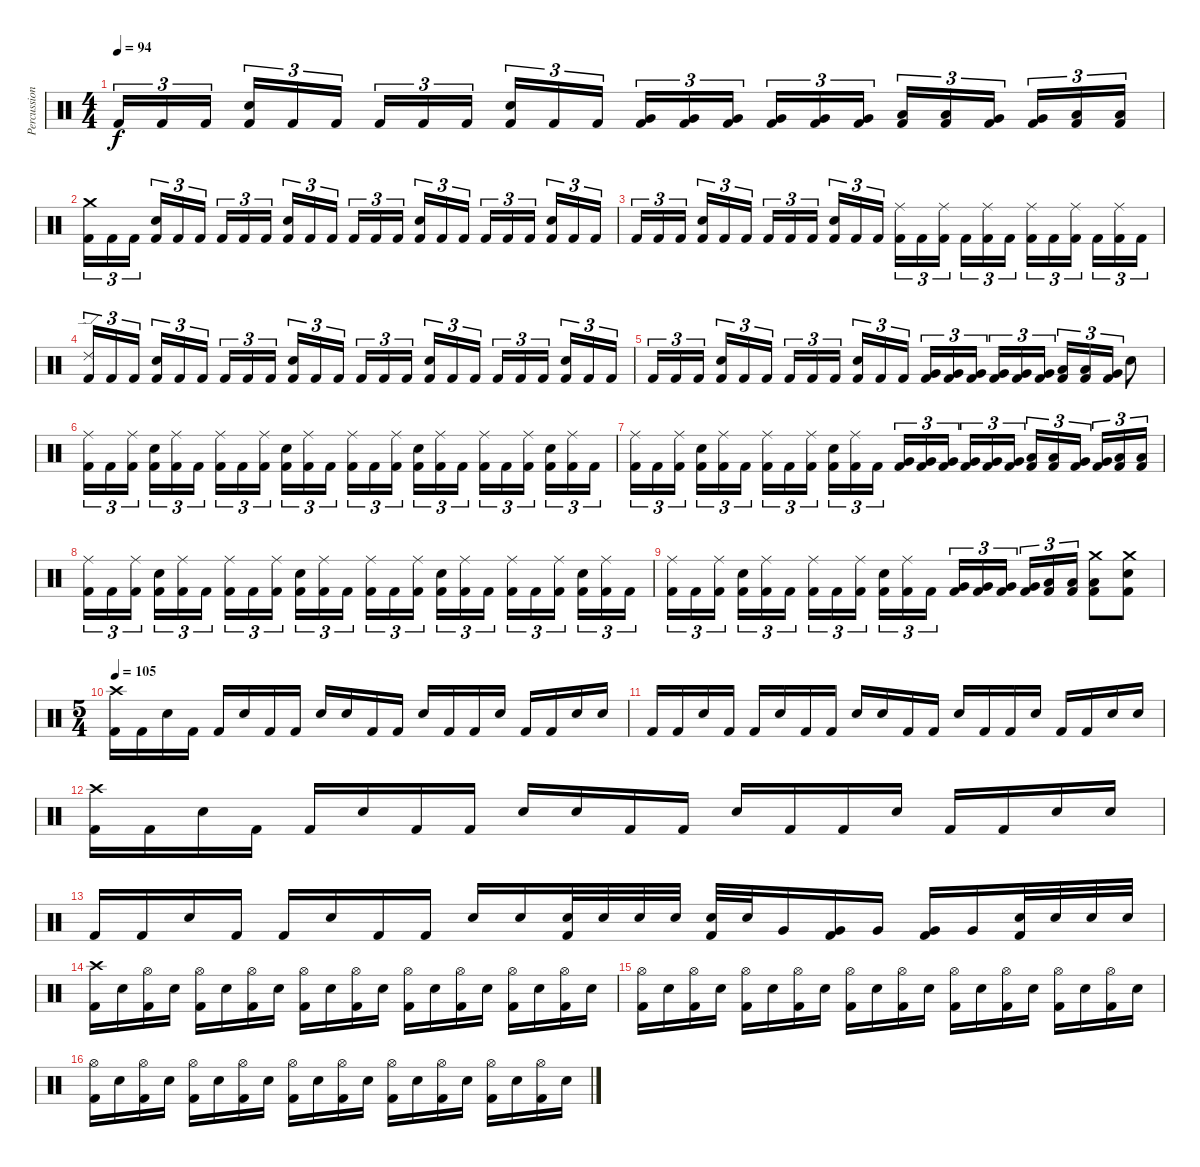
\track ("Percussioni" "Percussion") {instrument percussion}
\staff {score}
\articulation defaults
\ts (4 4)
\tempo 94
\clef neutral
\ks c "Kick (hit) 2".16{tu (3 2) dy f} "Kick (hit) 2".16{tu (3 2)} "Kick (hit) 2".16{tu (3 2)}
("Snare (hit) 2" "Kick (hit) 2").16{tu (3 2)} "Kick (hit) 2".16{tu (3 2)} "Kick (hit) 2".16{tu (3 2)} "Kick (hit) 2".16{tu (3 2)} "Kick (hit) 2".16{tu (3 2)} "Kick (hit) 2".16{tu (3 2)} ("Snare (hit) 2" "Kick (hit) 2").16{tu (3 2)} "Kick (hit) 2".16{tu (3 2)} "Kick (hit) 2".16{tu (3 2)} ("Very Low Tom (hit)" "Kick (hit) 2").16{tu (3 2)} ("Very Low Tom (hit)" "Kick (hit) 2").16{tu (3 2)} ("Very Low Tom (hit)" "Kick (hit) 2").16{tu (3 2)} ("Very Low Tom (hit)" "Kick (hit) 2").16{tu (3 2)} ("Very Low Tom (hit)" "Kick (hit) 2").16{tu (3 2)} ("Very Low Tom (hit)" "Kick (hit) 2").16{tu (3 2)} ("Low Tom (hit)" "Kick (hit) 2").16{tu (3 2)} ("Low Tom (hit)" "Kick (hit) 2").16{tu (3 2)} ("Very Low Tom (hit)" "Kick (hit) 2").16{tu (3 2)} ("Very Low Tom (hit)" "Kick (hit) 2").16{tu (3 2)} ("Low Floor Tom (hit)" "Kick (hit) 2").16{tu (3 2)} ("Low Floor Tom (hit)" "Kick (hit) 2").16{tu (3 2)} |
("Crash medium (hit)" "Kick (hit) 2").16{tu (3 2)} "Kick (hit) 2".16{tu (3 2)} "Kick (hit) 2".16{tu (3 2)} ("Snare (hit) 2" "Kick (hit) 2").16{tu (3 2)} "Kick (hit) 2".16{tu (3 2)} "Kick (hit) 2".16{tu (3 2)} "Kick (hit) 2".16{tu (3 2)} "Kick (hit) 2".16{tu (3 2)} "Kick (hit) 2".16{tu (3 2)} ("Snare (hit) 2" "Kick (hit) 2").16{tu (3 2)} "Kick (hit) 2".16{tu (3 2)} "Kick (hit) 2".16{tu (3 2)} "Kick (hit) 2".16{tu (3 2)} "Kick (hit) 2".16{tu (3 2)} "Kick (hit) 2".16{tu (3 2)} ("Snare (hit) 2" "Kick (hit) 2").16{tu (3 2)} "Kick (hit) 2".16{tu (3 2)} "Kick (hit) 2".16{tu (3 2)} "Kick (hit) 2".16{tu (3 2)} "Kick (hit) 2".16{tu (3 2)} "Kick (hit) 2".16{tu (3 2)} ("Snare (hit) 2" "Kick (hit) 2").16{tu (3 2)} "Kick (hit) 2".16{tu (3 2)} "Kick (hit) 2".16{tu (3 2)} |
"Kick (hit) 2".16{tu (3 2)} "Kick (hit) 2".16{tu (3 2)} "Kick (hit) 2".16{tu (3 2)} ("Snare (hit) 2" "Kick (hit) 2").16{tu (3 2)} "Kick (hit) 2".16{tu (3 2)} "Kick (hit) 2".16{tu (3 2)} "Kick (hit) 2".16{tu (3 2)} "Kick (hit) 2".16{tu (3 2)} "Kick (hit) 2".16{tu (3 2)} ("Snare (hit) 2" "Kick (hit) 2").16{tu (3 2)} "Kick (hit) 2".16{tu (3 2)} "Kick (hit) 2".16{tu (3 2)} ("Ride (middle)" "Kick (hit) 2").16{tu (3 2)} "Kick (hit) 2".16{tu (3 2)} ("Ride (middle)" "Kick (hit) 2").16{tu (3 2)} "Kick (hit) 2".16{tu (3 2)} ("Ride (middle)" "Kick (hit) 2").16{tu (3 2)} "Kick (hit) 2".16{tu (3 2)} ("Ride (middle)" "Kick (hit) 2").16{tu (3 2)} "Kick (hit) 2".16{tu (3 2)} ("Ride (middle)" "Kick (hit) 2").16{tu (3 2)} "Kick (hit) 2".16{tu (3 2)} ("Ride (middle)" "Kick (hit) 2").16{tu (3 2)} "Kick (hit) 2".16{tu (3 2)} |
("Ride (edge) 2" "Kick (hit) 2").16{tu (3 2)} "Kick (hit) 2".16{tu (3 2)} "Kick (hit) 2".16{tu (3 2)} ("Snare (hit) 2" "Kick (hit) 2").16{tu (3 2)} "Kick (hit) 2".16{tu (3 2)} "Kick (hit) 2".16{tu (3 2)} "Kick (hit) 2".16{tu (3 2)} "Kick (hit) 2".16{tu (3 2)} "Kick (hit) 2".16{tu (3 2)} ("Snare (hit) 2" "Kick (hit) 2").16{tu (3 2)} "Kick (hit) 2".16{tu (3 2)} "Kick (hit) 2".16{tu (3 2)} "Kick (hit) 2".16{tu (3 2)} "Kick (hit) 2".16{tu (3 2)} "Kick (hit) 2".16{tu (3 2)} ("Snare (hit) 2" "Kick (hit) 2").16{tu (3 2)} "Kick (hit) 2".16{tu (3 2)} "Kick (hit) 2".16{tu (3 2)} "Kick (hit) 2".16{tu (3 2)} "Kick (hit) 2".16{tu (3 2)} "Kick (hit) 2".16{tu (3 2)} ("Snare (hit) 2" "Kick (hit) 2").16{tu (3 2)} "Kick (hit) 2".16{tu (3 2)} "Kick (hit) 2".16{tu (3 2)} |
"Kick (hit) 2".16{tu (3 2)} "Kick (hit) 2".16{tu (3 2)} "Kick (hit) 2".16{tu (3 2)} ("Snare (hit) 2" "Kick (hit) 2").16{tu (3 2)} "Kick (hit) 2".16{tu (3 2)} "Kick (hit) 2".16{tu (3 2)} "Kick (hit) 2".16{tu (3 2)} "Kick (hit) 2".16{tu (3 2)} "Kick (hit) 2".16{tu (3 2)} ("Snare (hit) 2" "Kick (hit) 2").16{tu (3 2)} "Kick (hit) 2".16{tu (3 2)} "Kick (hit) 2".16{tu (3 2)} ("Very Low Tom (hit)" "Kick (hit) 2").16{tu (3 2)} ("Very Low Tom (hit)" "Kick (hit) 2").16{tu (3 2)} ("Very Low Tom (hit)" "Kick (hit) 2").16{tu (3 2)} ("Very Low Tom (hit)" "Kick (hit) 2").16{tu (3 2)} ("Very Low Tom (hit)" "Kick (hit) 2").16{tu (3 2)} ("Very Low Tom (hit)" "Kick (hit) 2").16{tu (3 2)} ("Low Tom (hit)" "Kick (hit) 2").16{tu (3 2)} ("Low Tom (hit)" "Kick (hit) 2").16{tu (3 2)} ("Very Low Tom (hit)" "Kick (hit) 2").16{tu (3 2)} "Snare (hit) 2".8 |
("Ride (middle)" "Kick (hit) 2").16{tu (3 2)} "Kick (hit) 2".16{tu (3 2)} ("Ride (middle)" "Kick (hit) 2").16{tu (3 2)} ("Snare (hit) 2" "Kick (hit) 2").16{tu (3 2)} ("Ride (middle)" "Kick (hit) 2").16{tu (3 2)} "Kick (hit) 2".16{tu (3 2)} ("Ride (middle)" "Kick (hit) 2").16{tu (3 2)} "Kick (hit) 2".16{tu (3 2)} ("Ride (middle)" "Kick (hit) 2").16{tu (3 2)} ("Snare (hit) 2" "Kick (hit) 2").16{tu (3 2)} ("Ride (middle)" "Kick (hit) 2").16{tu (3 2)} "Kick (hit) 2".16{tu (3 2)} ("Ride (middle)" "Kick (hit) 2").16{tu (3 2)} "Kick (hit) 2".16{tu (3 2)} ("Ride (middle)" "Kick (hit) 2").16{tu (3 2)} ("Snare (hit) 2" "Kick (hit) 2").16{tu (3 2)} ("Ride (middle)" "Kick (hit) 2").16{tu (3 2)} "Kick (hit) 2".16{tu (3 2)} ("Ride (middle)" "Kick (hit) 2").16{tu (3 2)} "Kick (hit) 2".16{tu (3 2)} ("Ride (middle)" "Kick (hit) 2").16{tu (3 2)} ("Snare (hit) 2" "Kick (hit) 2").16{tu (3 2)} ("Ride (middle)" "Kick (hit) 2").16{tu (3 2)} "Kick (hit) 2".16{tu (3 2)} |
("Ride (middle)" "Kick (hit) 2").16{tu (3 2)} "Kick (hit) 2".16{tu (3 2)} ("Ride (middle)" "Kick (hit) 2").16{tu (3 2)} ("Snare (hit) 2" "Kick (hit) 2").16{tu (3 2)} ("Ride (middle)" "Kick (hit) 2").16{tu (3 2)} "Kick (hit) 2".16{tu (3 2)} ("Ride (middle)" "Kick (hit) 2").16{tu (3 2)} "Kick (hit) 2".16{tu (3 2)} ("Ride (middle)" "Kick (hit) 2").16{tu (3 2)} ("Snare (hit) 2" "Kick (hit) 2").16{tu (3 2)} ("Ride (middle)" "Kick (hit) 2").16{tu (3 2)} "Kick (hit) 2".16{tu (3 2)} ("Very Low Tom (hit)" "Kick (hit) 2").16{tu (3 2)} ("Very Low Tom (hit)" "Kick (hit) 2").16{tu (3 2)} ("Very Low Tom (hit)" "Kick (hit) 2").16{tu (3 2)} ("Very Low Tom (hit)" "Kick (hit) 2").16{tu (3 2)} ("Very Low Tom (hit)" "Kick (hit) 2").16{tu (3 2)} ("Very Low Tom (hit)" "Kick (hit) 2").16{tu (3 2)} ("Low Tom (hit)" "Kick (hit) 2").16{tu (3 2)} ("Low Tom (hit)" "Kick (hit) 2").16{tu (3 2)} ("Very Low Tom (hit)" "Kick (hit) 2").16{tu (3 2)} ("Very Low Tom (hit)" "Kick (hit) 2").16{tu (3 2)} ("Low Floor Tom (hit)" "Kick (hit) 2").16{tu (3 2)} ("Low Floor Tom (hit)" "Kick (hit) 2").16{tu (3 2)} |
("Ride (middle)" "Kick (hit) 2").16{tu (3 2)} "Kick (hit) 2".16{tu (3 2)} ("Ride (middle)" "Kick (hit) 2").16{tu (3 2)} ("Snare (hit) 2" "Kick (hit) 2").16{tu (3 2)} ("Ride (middle)" "Kick (hit) 2").16{tu (3 2)} "Kick (hit) 2".16{tu (3 2)} ("Ride (middle)" "Kick (hit) 2").16{tu (3 2)} "Kick (hit) 2".16{tu (3 2)} ("Ride (middle)" "Kick (hit) 2").16{tu (3 2)} ("Snare (hit) 2" "Kick (hit) 2").16{tu (3 2)} ("Ride (middle)" "Kick (hit) 2").16{tu (3 2)} "Kick (hit) 2".16{tu (3 2)} ("Ride (middle)" "Kick (hit) 2").16{tu (3 2)} "Kick (hit) 2".16{tu (3 2)} ("Ride (middle)" "Kick (hit) 2").16{tu (3 2)} ("Snare (hit) 2" "Kick (hit) 2").16{tu (3 2)} ("Ride (middle)" "Kick (hit) 2").16{tu (3 2)} "Kick (hit) 2".16{tu (3 2)} ("Ride (middle)" "Kick (hit) 2").16{tu (3 2)} "Kick (hit) 2".16{tu (3 2)} ("Ride (middle)" "Kick (hit) 2").16{tu (3 2)} ("Snare (hit) 2" "Kick (hit) 2").16{tu (3 2)} ("Ride (middle)" "Kick (hit) 2").16{tu (3 2)} "Kick (hit) 2".16{tu (3 2)} |
("Ride (middle)" "Kick (hit) 2").16{tu (3 2)} "Kick (hit) 2".16{tu (3 2)} ("Ride (middle)" "Kick (hit) 2").16{tu (3 2)} ("Snare (hit) 2" "Kick (hit) 2").16{tu (3 2)} ("Ride (middle)" "Kick (hit) 2").16{tu (3 2)} "Kick (hit) 2".16{tu (3 2)} ("Ride (middle)" "Kick (hit) 2").16{tu (3 2)} "Kick (hit) 2".16{tu (3 2)} ("Ride (middle)" "Kick (hit) 2").16{tu (3 2)} ("Snare (hit) 2" "Kick (hit) 2").16{tu (3 2)} ("Ride (middle)" "Kick (hit) 2").16{tu (3 2)} "Kick (hit) 2".16{tu (3 2)} ("Very Low Tom (hit)" "Kick (hit) 2").16{tu (3 2)} ("Very Low Tom (hit)" "Kick (hit) 2").16{tu (3 2)} ("Very Low Tom (hit)" "Kick (hit) 2").16{tu (3 2)} ("Very Low Tom (hit)" "Kick (hit) 2").16{tu (3 2)} ("Low Tom (hit)" "Kick (hit) 2").16{tu (3 2)} ("Low Tom (hit)" "Kick (hit) 2").16{tu (3 2)} ("Crash medium (hit)" "Low Tom (hit)" "Kick (hit) 2").8 ("Crash medium (hit)" "Snare (hit) 2" "Kick (hit) 2").8 |
\ts (5 4)
\tempo 105
("Crash high (hit)" "Kick (hit) 2").16 "Kick (hit) 2".16 "Snare (hit) 2".16 "Kick (hit) 2".16 "Kick (hit) 2".16 "Snare (hit) 2".16 "Kick (hit) 2".16 "Kick (hit) 2".16 "Snare (hit) 2".16 "Snare (hit) 2".16 "Kick (hit) 2".16 "Kick (hit) 2".16 "Snare (hit) 2".16 "Kick (hit) 2".16 "Kick (hit) 2".16 "Snare (hit) 2".16 "Kick (hit) 2".16 "Kick (hit) 2".16 "Snare (hit) 2".16 "Snare (hit) 2".16 |
"Kick (hit) 2".16 "Kick (hit) 2".16 "Snare (hit) 2".16 "Kick (hit) 2".16 "Kick (hit) 2".16 "Snare (hit) 2".16 "Kick (hit) 2".16 "Kick (hit) 2".16 "Snare (hit) 2".16 "Snare (hit) 2".16 "Kick (hit) 2".16 "Kick (hit) 2".16 "Snare (hit) 2".16 "Kick (hit) 2".16 "Kick (hit) 2".16 "Snare (hit) 2".16 "Kick (hit) 2".16 "Kick (hit) 2".16 "Snare (hit) 2".16 "Snare (hit) 2".16 |
("Crash high (hit)" "Kick (hit) 2").16 "Kick (hit) 2".16 "Snare (hit) 2".16 "Kick (hit) 2".16 "Kick (hit) 2".16 "Snare (hit) 2".16 "Kick (hit) 2".16 "Kick (hit) 2".16 "Snare (hit) 2".16 "Snare (hit) 2".16 "Kick (hit) 2".16 "Kick (hit) 2".16 "Snare (hit) 2".16 "Kick (hit) 2".16 "Kick (hit) 2".16 "Snare (hit) 2".16 "Kick (hit) 2".16 "Kick (hit) 2".16 "Snare (hit) 2".16 "Snare (hit) 2".16 |
"Kick (hit) 2".16 "Kick (hit) 2".16 "Snare (hit) 2".16 "Kick (hit) 2".16 "Kick (hit) 2".16 "Snare (hit) 2".16 "Kick (hit) 2".16 "Kick (hit) 2".16 "Snare (hit) 2".16 "Snare (hit) 2".16 ("Snare (hit) 2" "Kick (hit) 2").32 "Snare (hit) 2".32 "Snare (hit) 2".32 "Snare (hit) 2".32 ("Snare (hit) 2" "Kick (hit) 2").32 "Snare (hit) 2".32 "Very Low Tom (hit)".16 ("Very Low Tom (hit)" "Kick (hit) 2").16 "Very Low Tom (hit)".16 ("Very Low Tom (hit)" "Kick (hit) 2").16 "Very Low Tom (hit)".16 ("Snare (hit) 2" "Kick (hit) 2").32 "Snare (hit) 2".32 "Snare (hit) 2".32 "Snare (hit) 2".32 |
("Crash high (hit)" "Kick (hit) 2").16 "Snare (hit) 2".16 ("Hi-Hat (open)" "Kick (hit) 2").16 "Snare (hit) 2".16 ("Hi-Hat (open)" "Kick (hit) 2").16 "Snare (hit) 2".16 ("Hi-Hat (open)" "Kick (hit) 2").16 "Snare (hit) 2".16 ("Hi-Hat (open)" "Kick (hit) 2").16 "Snare (hit) 2".16 ("Hi-Hat (open)" "Kick (hit) 2").16 "Snare (hit) 2".16 ("Hi-Hat (open)" "Kick (hit) 2").16 "Snare (hit) 2".16 ("Hi-Hat (open)" "Kick (hit) 2").16 "Snare (hit) 2".16 ("Hi-Hat (open)" "Kick (hit) 2").16 "Snare (hit) 2".16 ("Hi-Hat (open)" "Kick (hit) 2").16 "Snare (hit) 2".16 |
("Hi-Hat (open)" "Kick (hit) 2").16 "Snare (hit) 2".16 ("Hi-Hat (open)" "Kick (hit) 2").16 "Snare (hit) 2".16 ("Hi-Hat (open)" "Kick (hit) 2").16 "Snare (hit) 2".16 ("Hi-Hat (open)" "Kick (hit) 2").16 "Snare (hit) 2".16 ("Hi-Hat (open)" "Kick (hit) 2").16 "Snare (hit) 2".16 ("Hi-Hat (open)" "Kick (hit) 2").16 "Snare (hit) 2".16 ("Hi-Hat (open)" "Kick (hit) 2").16 "Snare (hit) 2".16 ("Hi-Hat (open)" "Kick (hit) 2").16 "Snare (hit) 2".16 ("Hi-Hat (open)" "Kick (hit) 2").16 "Snare (hit) 2".16 ("Hi-Hat (open)" "Kick (hit) 2").16 "Snare (hit) 2".16 |
("Hi-Hat (open)" "Kick (hit) 2").16 "Snare (hit) 2".16 ("Hi-Hat (open)" "Kick (hit) 2").16 "Snare (hit) 2".16 ("Hi-Hat (open)" "Kick (hit) 2").16 "Snare (hit) 2".16 ("Hi-Hat (open)" "Kick (hit) 2").16 "Snare (hit) 2".16 ("Hi-Hat (open)" "Kick (hit) 2").16 "Snare (hit) 2".16 ("Hi-Hat (open)" "Kick (hit) 2").16 "Snare (hit) 2".16 ("Hi-Hat (open)" "Kick (hit) 2").16 "Snare (hit) 2".16 ("Hi-Hat (open)" "Kick (hit) 2").16 "Snare (hit) 2".16 ("Hi-Hat (open)" "Kick (hit) 2").16 "Snare (hit) 2".16 ("Hi-Hat (open)" "Kick (hit) 2").16 "Snare (hit) 2".16
